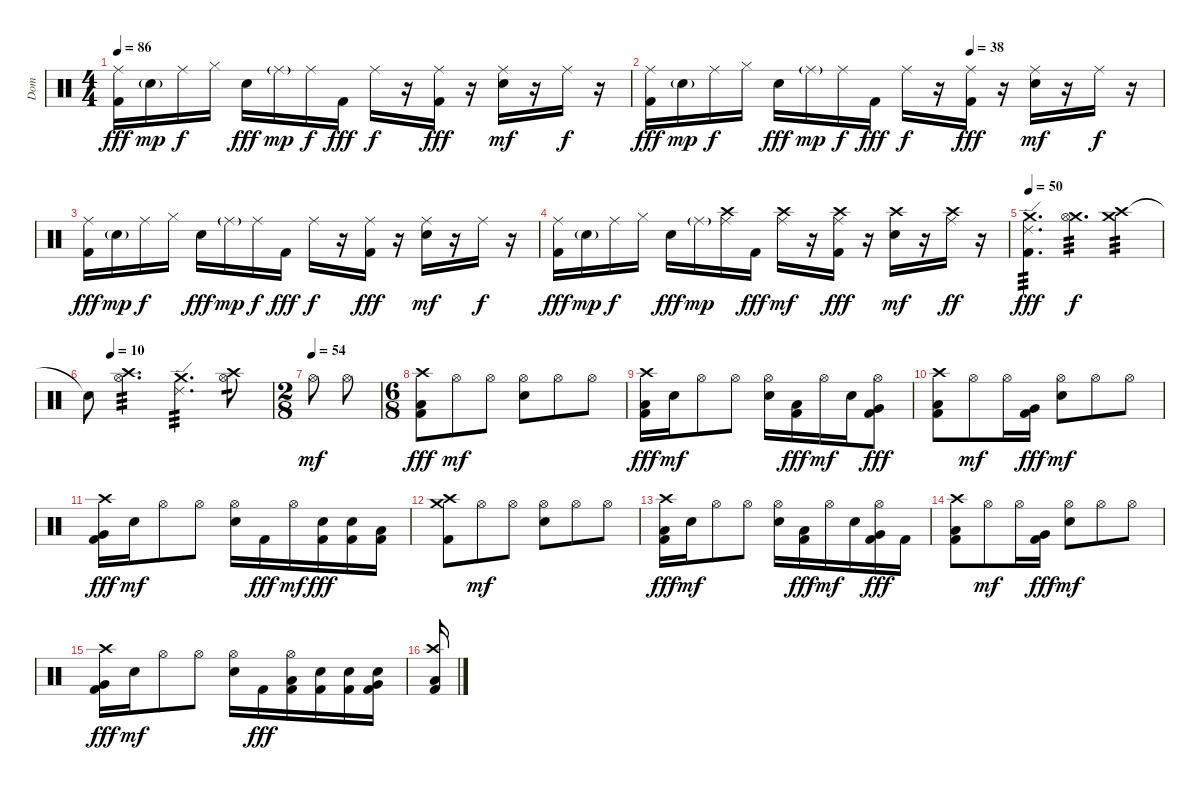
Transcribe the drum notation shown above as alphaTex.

\track ("Dom" "Dom") {instrument percussion}
\staff {score}
\articulation defaults
\ts (4 4)
\tempo 86
\clef neutral
\ks c
("Ride (middle)" "Kick (hit) 2").16{dy fff} "Electric Snare (hit)"{g}.16{dy mp} "Ride (middle)".16{dy f} "Hi-Hat (closed)".16 "Electric Snare (hit)".16{dy fff} "Ride (middle)"{g}.16{dy mp} "Ride (middle)".16{dy f} "Kick (hit) 2".16{dy fff} "Ride (middle)".16{dy f} r.16 ("Ride (middle)" "Kick (hit) 2").16{dy fff} r.16 ("Ride (middle)" "Electric Snare (hit)").16{dy mf} r.16 "Ride (middle)".16{dy f} r.16 |
\tempo (38 0.625)
("Ride (middle)" "Kick (hit) 2").16{dy fff} "Electric Snare (hit)"{g}.16{dy mp} "Ride (middle)".16{dy f} "Hi-Hat (closed)".16 "Electric Snare (hit)".16{dy fff} "Ride (middle)"{g}.16{dy mp} "Ride (middle)".16{dy f} "Kick (hit) 2".16{dy fff} "Ride (middle)".16{dy f} r.16 ("Ride (middle)" "Kick (hit) 2").16{dy fff} r.16 ("Ride (middle)" "Electric Snare (hit)").16{dy mf} r.16 "Ride (middle)".16{dy f} r.16 |
("Ride (middle)" "Kick (hit) 2").16{dy fff} "Electric Snare (hit)"{g}.16{dy mp} "Ride (middle)".16{dy f} "Hi-Hat (closed)".16 "Electric Snare (hit)".16{dy fff} "Ride (middle)"{g}.16{dy mp} "Ride (middle)".16{dy f} "Kick (hit) 2".16{dy fff} "Ride (middle)".16{dy f} r.16 ("Ride (middle)" "Kick (hit) 2").16{dy fff} r.16 ("Ride (middle)" "Electric Snare (hit)").16{dy mf} r.16 "Ride (middle)".16{dy f} r.16 |
("Ride (middle)" "Kick (hit) 2").16{dy fff} "Electric Snare (hit)"{g}.16{dy mp} "Ride (middle)".16{dy f} "Hi-Hat (closed)".16 "Electric Snare (hit)".16{dy fff} "Ride (middle)"{g}.16{dy mp} ("Ride (middle)" "Crash high (hit)").16 "Kick (hit) 2".16{dy fff} ("Ride (middle)" "Crash high (hit)").16{dy mf} r.16 ("Ride (middle)" "Crash high (hit)" "Kick (hit) 2").16{dy fff} r.16 ("Crash high (hit)" "Electric Snare (hit)").16{dy mf} r.16 ("Ride (middle)" "Crash high (hit)").16{dy ff} r.16 |
\tempo 50
("Ride (edge) 2" "Crash medium (hit)" "Kick (hit) 2").4{d tp 3 dy fff} ("Crash medium (hit)" "Hi-Hat (open)").4{d tp 3 dy f} ("Crash high (hit)" "Crash medium (hit)").4{tp 3} |
\tempo (10 0.125)
"Snare (hit)"{t}.8 ("Crash high (hit)" "Hi-Hat (open)").4{d tp 3} ("Ride (edge) 2" "Crash medium (hit)").4{d tp 3} ("Crash high (hit)" "Hi-Hat (open)").8{tp 1} |
\ts (2 8)
\tempo (54)
"Hi-Hat (open)".8{dy mf} "Hi-Hat (open)".8 |
\ts (6 8)
("Crash high (hit)" "Low Floor Tom (hit)" "Kick (hit) 2").8{dy fff} "Hi-Hat (open)".8{dy mf} "Hi-Hat (open)".8 ("Hi-Hat (open)" "Electric Snare (hit)").8 "Hi-Hat (open)".8 "Hi-Hat (open)".8 |
("Crash high (hit)" "Low Floor Tom (hit)" "Kick (hit) 2").16{dy fff} "Electric Snare (hit)".16{dy mf} "Hi-Hat (open)".8 "Hi-Hat (open)".8 ("Hi-Hat (open)" "Electric Snare (hit)").16 ("Low Floor Tom (hit)" "Kick (hit) 2").16{dy fff} "Hi-Hat (open)".16{dy mf} "Electric Snare (hit)".16 ("Hi-Hat (open)" "Very Low Tom (hit)" "Kick (hit) 2").8{dy fff} |
("Crash high (hit)" "Low Tom (hit)" "Kick (hit) 2").8 "Hi-Hat (open)".8{dy mf} "Hi-Hat (open)".16 ("Very Low Tom (hit)" "Kick (hit) 2").16{dy fff} ("Hi-Hat (open)" "Electric Snare (hit)").8{dy mf} "Hi-Hat (open)".8 "Hi-Hat (open)".8 |
("Crash high (hit)" "Very Low Tom (hit)" "Kick (hit) 2").16{dy fff} "Electric Snare (hit)".16{dy mf} "Hi-Hat (open)".8 "Hi-Hat (open)".8 ("Hi-Hat (open)" "Electric Snare (hit)").16 "Kick (hit) 2".16{dy fff} "Hi-Hat (open)".16{dy mf} ("Electric Snare (hit)" "Kick (hit) 2").16{dy fff} ("Electric Snare (hit)" "Kick (hit) 2").16 ("Low Tom (hit)" "Kick (hit) 2").16 |
("Crash high (hit)" "Crash medium (hit)" "Kick (hit) 2").8 "Hi-Hat (open)".8{dy mf} "Hi-Hat (open)".8 ("Hi-Hat (open)" "Electric Snare (hit)").8 "Hi-Hat (open)".8 "Hi-Hat (open)".8 |
("Crash high (hit)" "Low Floor Tom (hit)" "Kick (hit) 2").16{dy fff} "Electric Snare (hit)".16{dy mf} "Hi-Hat (open)".8 "Hi-Hat (open)".8 ("Hi-Hat (open)" "Electric Snare (hit)").16 ("Low Floor Tom (hit)" "Kick (hit) 2").16{dy fff} "Hi-Hat (open)".16{dy mf} "Electric Snare (hit)".16 ("Hi-Hat (open)" "Very Low Tom (hit)" "Kick (hit) 2").16{dy fff} "Kick (hit) 2".16 |
("Crash high (hit)" "Low Tom (hit)" "Kick (hit) 2").8 "Hi-Hat (open)".8{dy mf} "Hi-Hat (open)".16 ("Very Low Tom (hit)" "Kick (hit) 2").16{dy fff} ("Hi-Hat (open)" "Electric Snare (hit)").8{dy mf} "Hi-Hat (open)".8 "Hi-Hat (open)".8 |
("Crash high (hit)" "Very Low Tom (hit)" "Kick (hit) 2").16{dy fff} "Electric Snare (hit)".16{dy mf} "Hi-Hat (open)".8 "Hi-Hat (open)".8 ("Hi-Hat (open)" "Electric Snare (hit)").16 "Kick (hit) 2".16{dy fff} ("Hi-Hat (open)" "Low Tom (hit)" "Kick (hit) 2").16 ("Electric Snare (hit)" "Kick (hit) 2").16 ("Electric Snare (hit)" "Kick (hit) 2").16 ("Electric Snare (hit)" "Very Low Tom (hit)" "Kick (hit) 2").16 |
("Crash high (hit)" "Low Floor Tom (hit)" "Kick (hit) 2").16
